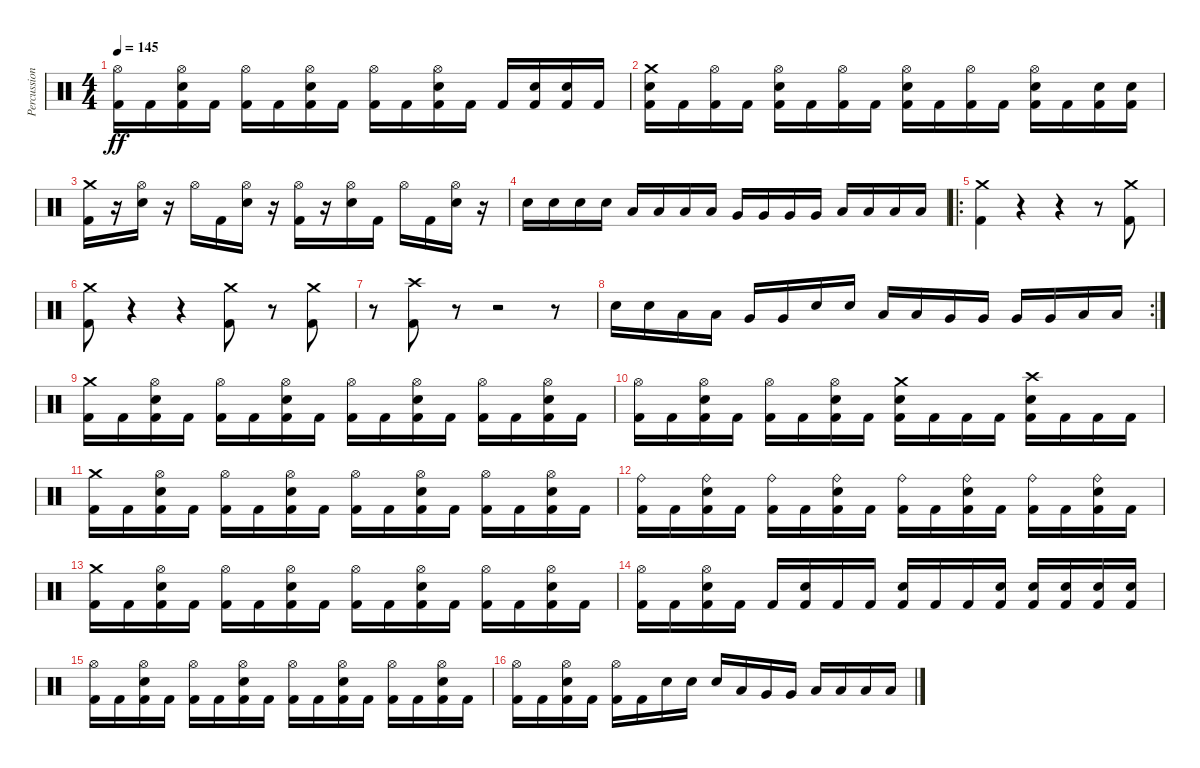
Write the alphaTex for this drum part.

\track ("Percussion" "Percussion") {instrument percussion}
\staff {score}
\articulation defaults
\ts (4 4)
\tempo 145
\clef neutral
\ks c
("Hi-Hat (open)" "Kick (hit) 2").16{dy ff} "Kick (hit) 2".16 ("Electric Snare (hit)" "Hi-Hat (open)" "Kick (hit) 2").16 "Kick (hit) 2".16 ("Hi-Hat (open)" "Kick (hit) 2").16 "Kick (hit) 2".16 ("Electric Snare (hit)" "Hi-Hat (open)" "Kick (hit) 2").16 "Kick (hit) 2".16 ("Hi-Hat (open)" "Kick (hit) 2").16 "Kick (hit) 2".16 ("Electric Snare (hit)" "Hi-Hat (open)" "Kick (hit) 2").16 "Kick (hit) 2".16 "Kick (hit) 2".16 ("Electric Snare (hit)" "Kick (hit) 2").16 ("Electric Snare (hit)" "Kick (hit) 2").16 "Kick (hit) 2".16 |
("Electric Snare (hit)" "Crash medium (hit)" "Kick (hit) 2").16 "Kick (hit) 2".16 ("Hi-Hat (open)" "Kick (hit) 2").16 "Kick (hit) 2".16 ("Hi-Hat (open)" "Electric Snare (hit)" "Kick (hit) 2").16 "Kick (hit) 2".16 ("Hi-Hat (open)" "Kick (hit) 2").16 "Kick (hit) 2".16 ("Hi-Hat (open)" "Electric Snare (hit)" "Kick (hit) 2").16 "Kick (hit) 2".16 ("Hi-Hat (open)" "Kick (hit) 2").16 "Kick (hit) 2".16 ("Electric Snare (hit)" "Hi-Hat (open)" "Kick (hit) 2").16 "Kick (hit) 2".16 ("Electric Snare (hit)" "Kick (hit) 2").16 ("Electric Snare (hit)" "Kick (hit) 2").16 |
("Crash medium (hit)" "Kick (hit) 2").16 r.16 ("Hi-Hat (open)" "Electric Snare (hit)").16 r.16 "Hi-Hat (open)".16 "Kick (hit) 2".16 ("Hi-Hat (open)" "Electric Snare (hit)").16 r.16 ("Hi-Hat (open)" "Kick (hit) 2").16 r.16 ("Hi-Hat (open)" "Electric Snare (hit)").16 "Kick (hit) 2".16 "Hi-Hat (open)".16 "Kick (hit) 2".16 ("Hi-Hat (open)" "Electric Snare (hit)").16 r.16 |
"Electric Snare (hit)".16 "Electric Snare (hit)".16 "Electric Snare (hit)".16 "Electric Snare (hit)".16 "Low Tom (hit)".16 "Low Tom (hit)".16 "Low Tom (hit)".16 "Low Tom (hit)".16 "Very Low Tom (hit)".16 "Very Low Tom (hit)".16 "Very Low Tom (hit)".16 "Very Low Tom (hit)".16 "Low Floor Tom (hit)".16 "Low Floor Tom (hit)".16 "Low Floor Tom (hit)".16 "Low Floor Tom (hit)".16 |
\ro
("Crash medium (hit)" "Kick (hit) 2").4 r.4 r.4 r.8 ("Crash medium (hit)" "Kick (hit) 2").8 |
("Crash medium (hit)" "Kick (hit) 2").8 r.4 r.4 ("Crash medium (hit)" "Kick (hit) 2").8 r.8 ("Crash medium (hit)" "Kick (hit) 2").8 |
r.8 ("Crash high (hit)" "Kick (hit) 2").8 r.8 r.2 r.8 |
\rc 2 "Snare (hit) 2".16 "Snare (hit) 2".16 "Low Tom (hit)".16 "Low Tom (hit)".16 "Very Low Tom (hit)".16 "Very Low Tom (hit)".16 "Snare (hit) 2".16 "Snare (hit) 2".16 "Low Tom (hit)".16 "Low Tom (hit)".16 "Very Low Tom (hit)".16 "Very Low Tom (hit)".16 "Very Low Tom (hit)".16 "Very Low Tom (hit)".16 "Low Floor Tom (hit)".16 "Low Floor Tom (hit)".16
|
("Crash medium (hit)" "Kick (hit) 2").16 "Kick (hit) 2".16 ("Electric Snare (hit)" "Hi-Hat (open)" "Kick (hit) 2").16 "Kick (hit) 2".16 ("Hi-Hat (open)" "Kick (hit) 2").16 "Kick (hit) 2".16 ("Electric Snare (hit)" "Hi-Hat (open)" "Kick (hit) 2").16 "Kick (hit) 2".16 ("Hi-Hat (open)" "Kick (hit) 2").16 "Kick (hit) 2".16 ("Electric Snare (hit)" "Hi-Hat (open)" "Kick (hit) 2").16 "Kick (hit) 2".16 ("Hi-Hat (open)" "Kick (hit) 2").16 "Kick (hit) 2".16 ("Electric Snare (hit)" "Hi-Hat (open)" "Kick (hit) 2").16 "Kick (hit) 2".16 |
("Hi-Hat (open)" "Kick (hit) 2").16 "Kick (hit) 2".16 ("Electric Snare (hit)" "Hi-Hat (open)" "Kick (hit) 2").16 "Kick (hit) 2".16 ("Hi-Hat (open)" "Kick (hit) 2").16 "Kick (hit) 2".16 ("Electric Snare (hit)" "Hi-Hat (open)" "Kick (hit) 2").16 "Kick (hit) 2".16 ("Electric Snare (hit)" "Crash medium (hit)" "Kick (hit) 2").16 "Kick (hit) 2".16 "Kick (hit) 2".16 "Kick (hit) 2".16 ("Electric Snare (hit)" "Crash high (hit)" "Kick (hit) 2").16 "Kick (hit) 2".16 "Kick (hit) 2".16 "Kick (hit) 2".16 |
("Crash medium (hit)" "Kick (hit) 2").16 "Kick (hit) 2".16 ("Electric Snare (hit)" "Hi-Hat (open)" "Kick (hit) 2").16 "Kick (hit) 2".16 ("Hi-Hat (open)" "Kick (hit) 2").16 "Kick (hit) 2".16 ("Electric Snare (hit)" "Hi-Hat (open)" "Kick (hit) 2").16 "Kick (hit) 2".16 ("Hi-Hat (open)" "Kick (hit) 2").16 "Kick (hit) 2".16 ("Electric Snare (hit)" "Hi-Hat (open)" "Kick (hit) 2").16 "Kick (hit) 2".16 ("Hi-Hat (open)" "Kick (hit) 2").16 "Kick (hit) 2".16 ("Electric Snare (hit)" "Hi-Hat (open)" "Kick (hit) 2").16 "Kick (hit) 2".16 |
("Ride (bell)" "Kick (hit) 2").16 "Kick (hit) 2".16 ("Electric Snare (hit)" "Ride (bell)" "Kick (hit) 2").16 "Kick (hit) 2".16 ("Ride (bell)" "Kick (hit) 2").16 "Kick (hit) 2".16 ("Electric Snare (hit)" "Ride (bell)" "Kick (hit) 2").16 "Kick (hit) 2".16 ("Ride (bell)" "Kick (hit) 2").16 "Kick (hit) 2".16 ("Electric Snare (hit)" "Ride (bell)" "Kick (hit) 2").16 "Kick (hit) 2".16 ("Ride (bell)" "Kick (hit) 2").16 "Kick (hit) 2".16 ("Electric Snare (hit)" "Ride (bell)" "Kick (hit) 2").16 "Kick (hit) 2".16 |
("Crash medium (hit)" "Kick (hit) 2").16 "Kick (hit) 2".16 ("Electric Snare (hit)" "Hi-Hat (open)" "Kick (hit) 2").16 "Kick (hit) 2".16 ("Hi-Hat (open)" "Kick (hit) 2").16 "Kick (hit) 2".16 ("Electric Snare (hit)" "Hi-Hat (open)" "Kick (hit) 2").16 "Kick (hit) 2".16 ("Hi-Hat (open)" "Kick (hit) 2").16 "Kick (hit) 2".16 ("Electric Snare (hit)" "Hi-Hat (open)" "Kick (hit) 2").16 "Kick (hit) 2".16 ("Hi-Hat (open)" "Kick (hit) 2").16 "Kick (hit) 2".16 ("Electric Snare (hit)" "Hi-Hat (open)" "Kick (hit) 2").16 "Kick (hit) 2".16 |
("Hi-Hat (open)" "Kick (hit) 2").16 "Kick (hit) 2".16 ("Electric Snare (hit)" "Hi-Hat (open)" "Kick (hit) 2").16 "Kick (hit) 2".16 "Kick (hit) 2".16 ("Electric Snare (hit)" "Kick (hit) 2").16 "Kick (hit) 2".16 "Kick (hit) 2".16 ("Electric Snare (hit)" "Kick (hit) 2").16 "Kick (hit) 2".16 "Kick (hit) 2".16 ("Electric Snare (hit)" "Kick (hit) 2").16 ("Electric Snare (hit)" "Kick (hit) 2").16 ("Electric Snare (hit)" "Kick (hit) 2").16 ("Electric Snare (hit)" "Kick (hit) 2").16 ("Electric Snare (hit)" "Kick (hit) 2").16 |
("Hi-Hat (open)" "Kick (hit) 2").16 "Kick (hit) 2".16 ("Electric Snare (hit)" "Hi-Hat (open)" "Kick (hit) 2").16 "Kick (hit) 2".16 ("Hi-Hat (open)" "Kick (hit) 2").16 "Kick (hit) 2".16 ("Electric Snare (hit)" "Hi-Hat (open)" "Kick (hit) 2").16 "Kick (hit) 2".16 ("Hi-Hat (open)" "Kick (hit) 2").16 "Kick (hit) 2".16 ("Electric Snare (hit)" "Hi-Hat (open)" "Kick (hit) 2").16 "Kick (hit) 2".16 ("Hi-Hat (open)" "Kick (hit) 2").16 "Kick (hit) 2".16 ("Electric Snare (hit)" "Hi-Hat (open)" "Kick (hit) 2").16 "Kick (hit) 2".16 |
("Hi-Hat (open)" "Kick (hit) 2").16 "Kick (hit) 2".16 ("Electric Snare (hit)" "Hi-Hat (open)" "Kick (hit) 2").16 "Kick (hit) 2".16 ("Hi-Hat (open)" "Kick (hit) 2").16 "Kick (hit) 2".16 "Electric Snare (hit)".16 "Electric Snare (hit)".16 "Electric Snare (hit)".16 "Low Tom (hit)".16 "Very Low Tom (hit)".16 "Very Low Tom (hit)".16 "Low Floor Tom (hit)".16 "Low Floor Tom (hit)".16 "Low Floor Tom (hit)".16 "Low Floor Tom (hit)".16
